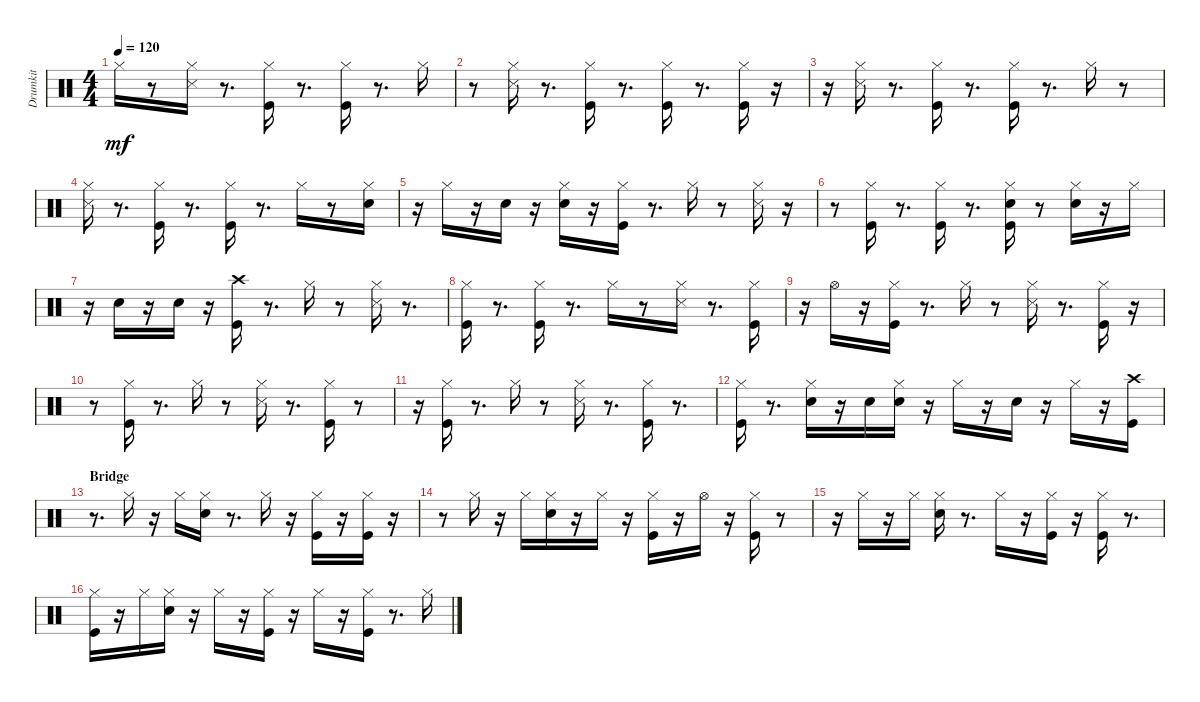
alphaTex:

\track ("Drumkit" "Drumkit") {instrument percussion}
\staff {score}
\articulation defaults
\ts (4 4)
\tempo 120
\clef neutral
\ks aminor "Hi-Hat (closed)".16{dy mf}
r.8 ("Snare (side stick) 3" "Hi-Hat (closed)").16 r.8{d} ("Kick (hit)" "Hi-Hat (closed)").16 r.8{d} ("Kick (hit)" "Hi-Hat (closed)").16 r.8{d} "Hi-Hat (closed)".16 |
r.8 ("Snare (side stick) 3" "Hi-Hat (closed)").16 r.8{d} ("Kick (hit)" "Hi-Hat (closed)").16 r.8{d} ("Kick (hit)" "Hi-Hat (closed)").16 r.8{d} ("Kick (hit)" "Hi-Hat (closed)").16 r.16 |
r.16 ("Snare (side stick) 3" "Hi-Hat (closed)").16 r.8{d} ("Kick (hit)" "Hi-Hat (closed)").16 r.8{d} ("Kick (hit)" "Hi-Hat (closed)").16 r.8{d} "Hi-Hat (closed)".16 r.8 |
("Snare (side stick) 3" "Hi-Hat (closed)").16 r.8{d} ("Kick (hit)" "Hi-Hat (closed)").16 r.8{d} ("Kick (hit)" "Hi-Hat (closed)").16 r.8{d} "Hi-Hat (closed)".16 r.8 ("Snare (hit) 2" "Hi-Hat (closed)").16 |
r.16 "Hi-Hat (closed)".16 r.16 "Snare (hit) 2".16 r.16 ("Snare (hit) 2" "Hi-Hat (closed)").16 r.16 ("Kick (hit)" "Hi-Hat (closed)").16 r.8{d} "Hi-Hat (closed)".16 r.8 ("Snare (side stick) 3" "Hi-Hat (closed)").16 r.16 |
r.8 ("Kick (hit)" "Hi-Hat (closed)").16 r.8{d} ("Kick (hit)" "Hi-Hat (closed)").16 r.8{d} ("Kick (hit)" "Snare (hit) 2" "Hi-Hat (closed)").16 r.8 ("Snare (hit) 2" "Hi-Hat (closed)").16 r.16 "Hi-Hat (closed)".16 |
r.16 "Snare (hit) 2".16 r.16 "Snare (hit) 2".16 r.16 ("Kick (hit)" "Crash high (hit)").16 r.8{d} "Hi-Hat (closed)".16 r.8 ("Snare (side stick) 3" "Hi-Hat (closed)").16 r.8{d} |
("Kick (hit)" "Hi-Hat (closed)").16 r.8{d} ("Kick (hit)" "Hi-Hat (closed)").16 r.8{d} "Hi-Hat (closed)".16 r.8 ("Snare (side stick) 3" "Hi-Hat (closed)").16 r.8{d} ("Kick (hit)" "Hi-Hat (closed)").16 |
r.16 "Hi-Hat (open)".16 r.16 ("Kick (hit)" "Hi-Hat (closed)").16 r.8{d} "Hi-Hat (closed)".16 r.8 ("Snare (side stick) 3" "Hi-Hat (closed)").16 r.8{d} ("Kick (hit)" "Hi-Hat (closed)").16 r.16 |
r.8 ("Kick (hit)" "Hi-Hat (closed)").16 r.8{d} "Hi-Hat (closed)".16 r.8 ("Snare (side stick) 3" "Hi-Hat (closed)").16 r.8{d} ("Kick (hit)" "Hi-Hat (closed)").16 r.8 |
r.16 ("Kick (hit)" "Hi-Hat (closed)").16 r.8{d} "Hi-Hat (closed)".16 r.8 ("Snare (side stick) 3" "Hi-Hat (closed)").16 r.8{d} ("Kick (hit)" "Hi-Hat (closed)").16 r.8{d} |
("Kick (hit)" "Hi-Hat (closed)").16 r.8{d} ("Snare (hit) 2" "Hi-Hat (closed)").16 r.16 "Snare (hit) 2".16 ("Snare (hit) 2" "Hi-Hat (closed)").16 r.16 "Hi-Hat (closed)".16 r.16 "Snare (hit) 2".16 r.16 "Hi-Hat (closed)".16 r.16 ("Kick (hit)" "Crash high (hit)").16 |
\section ("" "Bridge")
r.8{d} "Hi-Hat (closed)".16 r.16 "Hi-Hat (closed)".16 ("Snare (hit) 2" "Hi-Hat (closed)").16 r.8{d} "Hi-Hat (closed)".16 r.16 ("Kick (hit)" "Hi-Hat (closed)").16 r.16 ("Kick (hit)" "Hi-Hat (closed)").16 r.16 |
r.8 "Hi-Hat (closed)".16 r.16 "Hi-Hat (closed)".16 ("Snare (hit) 2" "Hi-Hat (closed)").16 r.16 "Hi-Hat (closed)".16 r.16 ("Kick (hit)" "Hi-Hat (closed)").16 r.16 "Hi-Hat (open)".16 r.16 ("Kick (hit)" "Hi-Hat (closed)").16 r.8 |
r.16 "Hi-Hat (closed)".16 r.16 "Hi-Hat (closed)".16 ("Snare (hit) 2" "Hi-Hat (closed)").16 r.8{d} "Hi-Hat (closed)".16 r.16 ("Kick (hit)" "Hi-Hat (closed)").16 r.16 ("Kick (hit)" "Hi-Hat (closed)").16 r.8{d} |
("Kick (hit)" "Hi-Hat (closed)").16 r.16 "Hi-Hat (closed)".16 ("Snare (hit) 2" "Hi-Hat (closed)").16 r.16 "Hi-Hat (closed)".16 r.16 ("Kick (hit)" "Hi-Hat (closed)").16 r.16 "Hi-Hat (closed)".16 r.16 ("Kick (hit)" "Hi-Hat (closed)").16 r.8{d} "Hi-Hat (closed)".16
